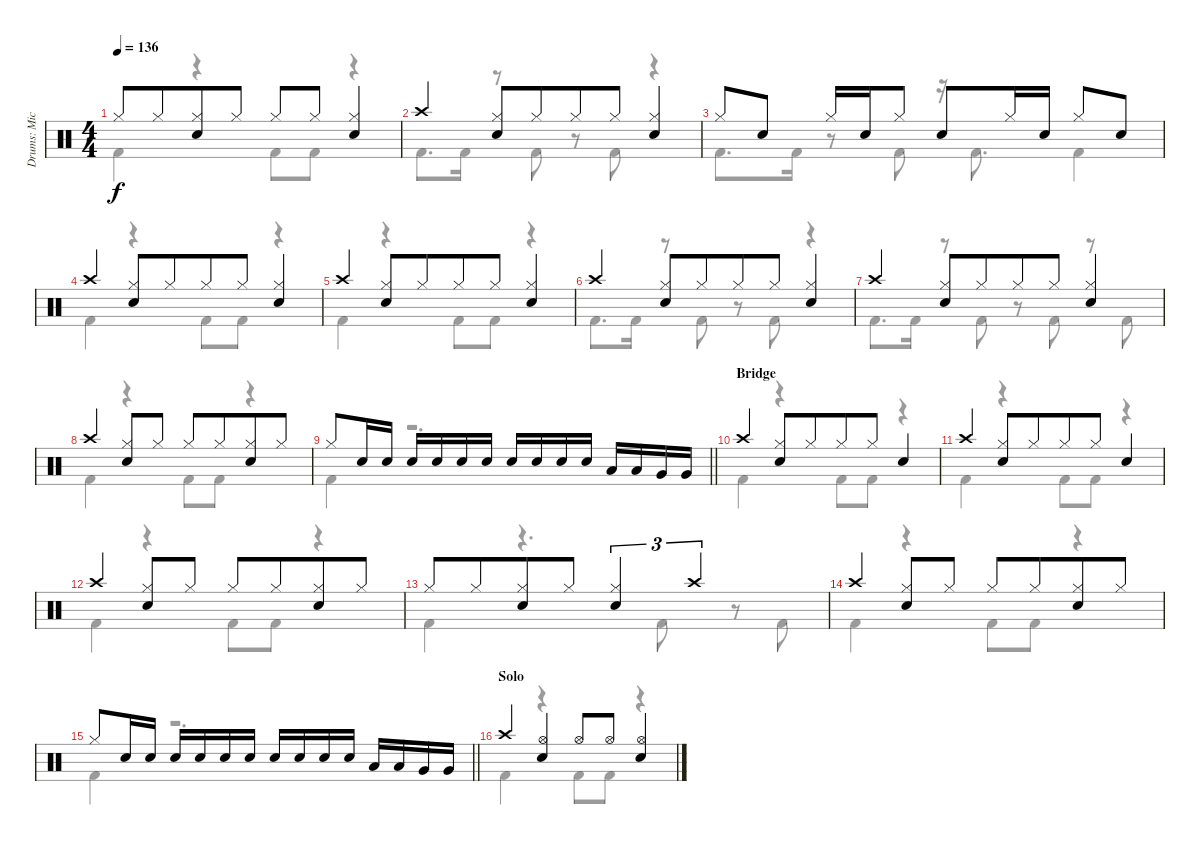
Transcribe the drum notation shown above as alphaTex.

\track ("Drums: Mick" "Drums: Mic") {instrument percussion}
\staff {score}
\articulation defaults
\voice
\ts (4 4)
\tempo 136
\clef neutral
\ks c "Hi-Hat (closed)".8{dy f} "Hi-Hat (closed)".8{beam merge}
("Hi-Hat (closed)" "Snare (hit) 2").8 "Hi-Hat (closed)".8 "Hi-Hat (closed)".8 "Hi-Hat (closed)".8 ("Hi-Hat (closed)" "Snare (hit) 2").4 |
"Crash high (hit)".4 ("Hi-Hat (closed)" "Snare (hit) 2").8 "Hi-Hat (closed)".8{beam merge} "Hi-Hat (closed)".8 "Hi-Hat (closed)".8{beam merge} ("Hi-Hat (closed)" "Snare (hit) 2").4 |
"Hi-Hat (closed)".8 "Snare (hit) 2".8 "Hi-Hat (closed)".16 "Snare (hit) 2".16 "Hi-Hat (closed)".8 "Snare (hit) 2".8 "Hi-Hat (closed)".16 "Snare (hit) 2".16 "Hi-Hat (closed)".8 "Snare (hit) 2".8 |
"Crash high (hit)".4 ("Hi-Hat (closed)" "Snare (hit) 2").8 "Hi-Hat (closed)".8{beam merge} "Hi-Hat (closed)".8 "Hi-Hat (closed)".8 ("Hi-Hat (closed)" "Snare (hit) 2").4 |
"Crash high (hit)".4 ("Hi-Hat (closed)" "Snare (hit) 2").8 "Hi-Hat (closed)".8{beam merge} "Hi-Hat (closed)".8 "Hi-Hat (closed)".8 ("Hi-Hat (closed)" "Snare (hit) 2").4 |
"Crash high (hit)".4 ("Hi-Hat (closed)" "Snare (hit) 2").8 "Hi-Hat (closed)".8{beam merge} "Hi-Hat (closed)".8 "Hi-Hat (closed)".8 ("Hi-Hat (closed)" "Snare (hit) 2").4 |
"Crash high (hit)".4 ("Hi-Hat (closed)" "Snare (hit) 2").8 "Hi-Hat (closed)".8{beam merge} "Hi-Hat (closed)".8 "Hi-Hat (closed)".8 ("Hi-Hat (closed)" "Snare (hit) 2").4 |
"Crash high (hit)".4 ("Hi-Hat (closed)" "Snare (hit) 2").8 "Hi-Hat (closed)".8{beam split} "Hi-Hat (closed)".8{beam merge} "Hi-Hat (closed)".8{beam merge} ("Hi-Hat (closed)" "Snare (hit) 2").8{beam merge} "Hi-Hat (closed)".8 |
\barLineRight lightlight "Hi-Hat (closed)".8 "Snare (hit) 2".16 "Snare (hit) 2".16 "Snare (hit) 2".16 "Snare (hit) 2".16 "Snare (hit) 2".16 "Snare (hit) 2".16 "Snare (hit) 2".16 "Snare (hit) 2".16 "Snare (hit) 2".16 "Snare (hit) 2".16 "Low Tom (hit)".16 "Low Tom (hit)".16 "Very Low Tom (hit)".16 "Very Low Tom (hit)".16
|
\section ("" "Bridge")
"Crash high (hit)".4 ("Hi-Hat (closed)" "Snare (hit) 2").8 "Hi-Hat (closed)".8{beam merge} "Hi-Hat (closed)".8 "Hi-Hat (closed)".8 "Snare (hit) 2".4 |
"Crash high (hit)".4 ("Hi-Hat (closed)" "Snare (hit) 2").8 "Hi-Hat (closed)".8{beam merge} "Hi-Hat (closed)".8 "Hi-Hat (closed)".8 "Snare (hit) 2".4 |
"Crash high (hit)".4 ("Hi-Hat (closed)" "Snare (hit) 2").8 "Hi-Hat (closed)".8{beam split} "Hi-Hat (closed)".8 "Hi-Hat (closed)".8{beam merge} ("Hi-Hat (closed)" "Snare (hit) 2").8 "Hi-Hat (closed)".8 |
"Hi-Hat (closed)".8 "Hi-Hat (closed)".8{beam merge} ("Hi-Hat (closed)" "Snare (hit) 2").8 "Hi-Hat (closed)".8 ("Hi-Hat (closed)" "Snare (hit) 2").4{tu (3 2)} "Crash high (hit)".2{tu (3 2)} |
"Crash high (hit)".4 ("Hi-Hat (closed)" "Snare (hit) 2").8 "Hi-Hat (closed)".8{beam split} "Hi-Hat (closed)".8 "Hi-Hat (closed)".8{beam merge} ("Hi-Hat (closed)" "Snare (hit) 2").8 "Hi-Hat (closed)".8 |
\barLineRight lightlight "Hi-Hat (closed)".8 "Snare (hit) 2".16 "Snare (hit) 2".16 "Snare (hit) 2".16 "Snare (hit) 2".16 "Snare (hit) 2".16 "Snare (hit) 2".16 "Snare (hit) 2".16 "Snare (hit) 2".16 "Snare (hit) 2".16 "Snare (hit) 2".16 "Low Tom (hit)".16 "Low Tom (hit)".16 "Very Low Tom (hit)".16 "Very Low Tom (hit)".16
|
\section ("" "Solo")
"Crash high (hit)".4 ("Hi-Hat (open)" "Snare (hit) 2").4 "Hi-Hat (open)".8 "Hi-Hat (open)".8 ("Hi-Hat (open)" "Snare (hit) 2").4
\voice
\clef neutral
\ottava regular
\simile none
\ks c "Kick (hit) 2".4{dy f}
r.4 "Kick (hit) 2".8 "Kick (hit) 2".8 r.4 |
"Kick (hit) 2".8{d} "Kick (hit) 2".16 r.8 "Kick (hit) 2".8 r.8 "Kick (hit) 2".8 r.4 |
"Kick (hit) 2".8{d} "Kick (hit) 2".16 r.8 "Kick (hit) 2".8 r.16 "Kick (hit) 2".8{d} "Kick (hit) 2".4 |
"Kick (hit) 2".4 r.4 "Kick (hit) 2".8 "Kick (hit) 2".8 r.4 |
"Kick (hit) 2".4 r.4 "Kick (hit) 2".8 "Kick (hit) 2".8 r.4 |
"Kick (hit) 2".8{d} "Kick (hit) 2".16 r.8 "Kick (hit) 2".8 r.8 "Kick (hit) 2".8 r.4 |
"Kick (hit) 2".8{d} "Kick (hit) 2".16 r.8 "Kick (hit) 2".8 r.8 "Kick (hit) 2".8 r.8 "Kick (hit) 2".8 |
"Kick (hit) 2".4 r.4 "Kick (hit) 2".8 "Kick (hit) 2".8 r.4 |
\barLineRight lightlight "Kick (hit) 2".4
r.2{d} |
"Kick (hit) 2".4 r.4 "Kick (hit) 2".8 "Kick (hit) 2".8 r.4 |
"Kick (hit) 2".4 r.4 "Kick (hit) 2".8 "Kick (hit) 2".8 r.4 |
"Kick (hit) 2".4 r.4 "Kick (hit) 2".8 "Kick (hit) 2".8 r.4 |
"Kick (hit) 2".4 r.4{d} "Kick (hit) 2".8 r.8 "Kick (hit) 2".8 |
"Kick (hit) 2".4 r.4 "Kick (hit) 2".8 "Kick (hit) 2".8 r.4 |
\barLineRight lightlight "Kick (hit) 2".4
r.2{d} |
"Kick (hit) 2".4 r.4 "Kick (hit) 2".8 "Kick (hit) 2".8 r.4
